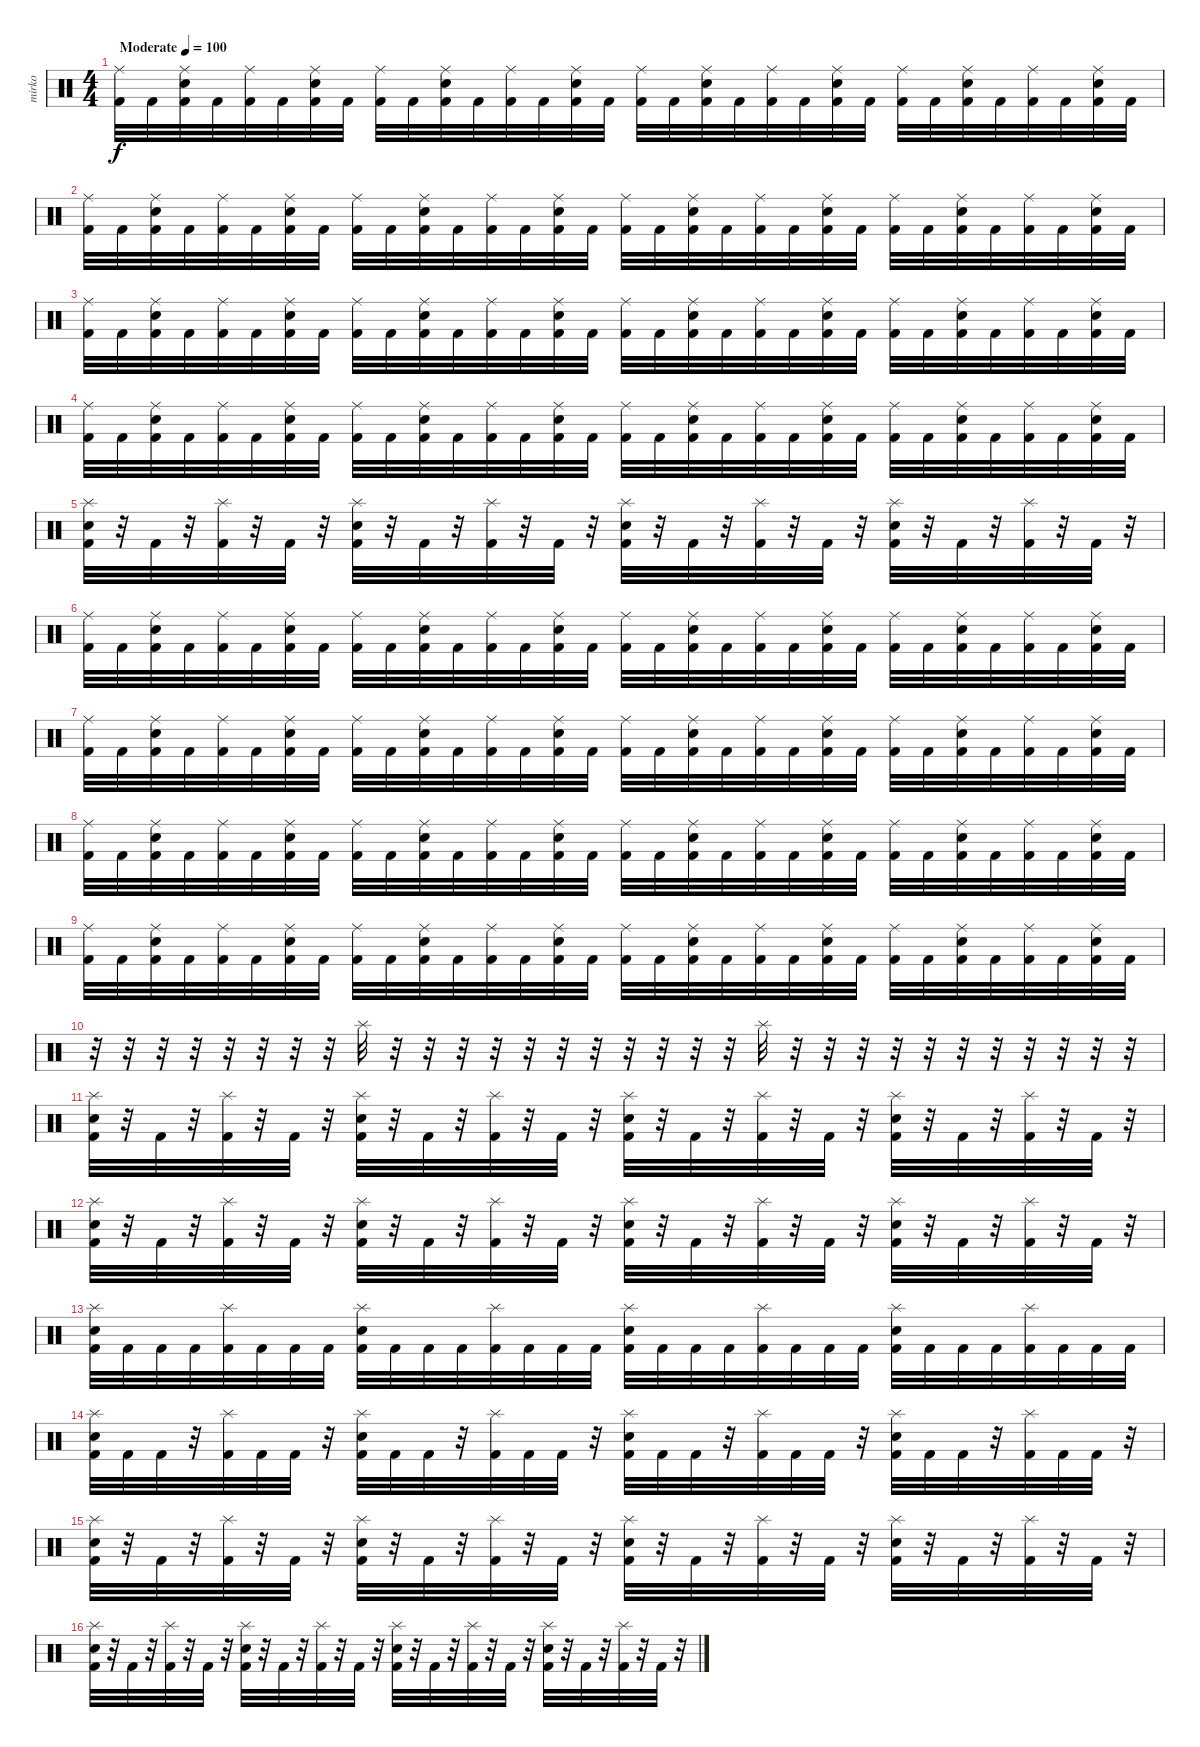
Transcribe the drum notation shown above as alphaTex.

\track ("mirko" "mirko") {instrument percussion}
\staff {score}
\articulation defaults
\ts (4 4)
\tempo (100 "Moderate")
\clef neutral
\ks c
("Ride (middle)" "Kick (hit) 2").32{dy f} "Kick (hit) 2".32 ("Ride (middle)" "Electric Snare (hit)" "Kick (hit) 2").32 "Kick (hit) 2".32 ("Ride (middle)" "Kick (hit) 2").32 "Kick (hit) 2".32 ("Ride (middle)" "Electric Snare (hit)" "Kick (hit) 2").32 "Kick (hit) 2".32 ("Ride (middle)" "Kick (hit) 2").32 "Kick (hit) 2".32 ("Ride (middle)" "Electric Snare (hit)" "Kick (hit) 2").32 "Kick (hit) 2".32 ("Ride (middle)" "Kick (hit) 2").32 "Kick (hit) 2".32 ("Ride (middle)" "Electric Snare (hit)" "Kick (hit) 2").32 "Kick (hit) 2".32 ("Ride (middle)" "Kick (hit) 2").32 "Kick (hit) 2".32 ("Ride (middle)" "Electric Snare (hit)" "Kick (hit) 2").32 "Kick (hit) 2".32 ("Ride (middle)" "Kick (hit) 2").32 "Kick (hit) 2".32 ("Ride (middle)" "Electric Snare (hit)" "Kick (hit) 2").32 "Kick (hit) 2".32 ("Ride (middle)" "Kick (hit) 2").32 "Kick (hit) 2".32 ("Ride (middle)" "Electric Snare (hit)" "Kick (hit) 2").32 "Kick (hit) 2".32 ("Ride (middle)" "Kick (hit) 2").32 "Kick (hit) 2".32 ("Ride (middle)" "Electric Snare (hit)" "Kick (hit) 2").32 "Kick (hit) 2".32 |
("Ride (middle)" "Kick (hit) 2").32 "Kick (hit) 2".32 ("Ride (middle)" "Electric Snare (hit)" "Kick (hit) 2").32 "Kick (hit) 2".32 ("Ride (middle)" "Kick (hit) 2").32 "Kick (hit) 2".32 ("Ride (middle)" "Electric Snare (hit)" "Kick (hit) 2").32 "Kick (hit) 2".32 ("Ride (middle)" "Kick (hit) 2").32 "Kick (hit) 2".32 ("Ride (middle)" "Electric Snare (hit)" "Kick (hit) 2").32 "Kick (hit) 2".32 ("Ride (middle)" "Kick (hit) 2").32 "Kick (hit) 2".32 ("Ride (middle)" "Electric Snare (hit)" "Kick (hit) 2").32 "Kick (hit) 2".32 ("Ride (middle)" "Kick (hit) 2").32 "Kick (hit) 2".32 ("Ride (middle)" "Electric Snare (hit)" "Kick (hit) 2").32 "Kick (hit) 2".32 ("Ride (middle)" "Kick (hit) 2").32 "Kick (hit) 2".32 ("Ride (middle)" "Electric Snare (hit)" "Kick (hit) 2").32 "Kick (hit) 2".32 ("Ride (middle)" "Kick (hit) 2").32 "Kick (hit) 2".32 ("Ride (middle)" "Electric Snare (hit)" "Kick (hit) 2").32 "Kick (hit) 2".32 ("Ride (middle)" "Kick (hit) 2").32 "Kick (hit) 2".32 ("Ride (middle)" "Electric Snare (hit)" "Kick (hit) 2").32 "Kick (hit) 2".32 |
("Ride (middle)" "Kick (hit) 2").32 "Kick (hit) 2".32 ("Ride (middle)" "Electric Snare (hit)" "Kick (hit) 2").32 "Kick (hit) 2".32 ("Ride (middle)" "Kick (hit) 2").32 "Kick (hit) 2".32 ("Ride (middle)" "Electric Snare (hit)" "Kick (hit) 2").32 "Kick (hit) 2".32 ("Ride (middle)" "Kick (hit) 2").32 "Kick (hit) 2".32 ("Ride (middle)" "Electric Snare (hit)" "Kick (hit) 2").32 "Kick (hit) 2".32 ("Ride (middle)" "Kick (hit) 2").32 "Kick (hit) 2".32 ("Ride (middle)" "Electric Snare (hit)" "Kick (hit) 2").32 "Kick (hit) 2".32 ("Ride (middle)" "Kick (hit) 2").32 "Kick (hit) 2".32 ("Ride (middle)" "Electric Snare (hit)" "Kick (hit) 2").32 "Kick (hit) 2".32 ("Ride (middle)" "Kick (hit) 2").32 "Kick (hit) 2".32 ("Ride (middle)" "Electric Snare (hit)" "Kick (hit) 2").32 "Kick (hit) 2".32 ("Ride (middle)" "Kick (hit) 2").32 "Kick (hit) 2".32 ("Ride (middle)" "Electric Snare (hit)" "Kick (hit) 2").32 "Kick (hit) 2".32 ("Ride (middle)" "Kick (hit) 2").32 "Kick (hit) 2".32 ("Ride (middle)" "Electric Snare (hit)" "Kick (hit) 2").32 "Kick (hit) 2".32 |
("Ride (middle)" "Kick (hit) 2").32 "Kick (hit) 2".32 ("Ride (middle)" "Electric Snare (hit)" "Kick (hit) 2").32 "Kick (hit) 2".32 ("Ride (middle)" "Kick (hit) 2").32 "Kick (hit) 2".32 ("Ride (middle)" "Electric Snare (hit)" "Kick (hit) 2").32 "Kick (hit) 2".32 ("Ride (middle)" "Kick (hit) 2").32 "Kick (hit) 2".32 ("Ride (middle)" "Electric Snare (hit)" "Kick (hit) 2").32 "Kick (hit) 2".32 ("Ride (middle)" "Kick (hit) 2").32 "Kick (hit) 2".32 ("Ride (middle)" "Electric Snare (hit)" "Kick (hit) 2").32 "Kick (hit) 2".32 ("Ride (middle)" "Kick (hit) 2").32 "Kick (hit) 2".32 ("Ride (middle)" "Electric Snare (hit)" "Kick (hit) 2").32 "Kick (hit) 2".32 ("Ride (middle)" "Kick (hit) 2").32 "Kick (hit) 2".32 ("Ride (middle)" "Electric Snare (hit)" "Kick (hit) 2").32 "Kick (hit) 2".32 ("Ride (middle)" "Kick (hit) 2").32 "Kick (hit) 2".32 ("Ride (middle)" "Electric Snare (hit)" "Kick (hit) 2").32 "Kick (hit) 2".32 ("Ride (middle)" "Kick (hit) 2").32 "Kick (hit) 2".32 ("Ride (middle)" "Electric Snare (hit)" "Kick (hit) 2").32 "Kick (hit) 2".32 |
("Splash (hit)" "Electric Snare (hit)" "Kick (hit) 2").32 r.32 "Kick (hit) 2".32 r.32 ("Splash (hit)" "Kick (hit) 2").32 r.32 "Kick (hit) 2".32 r.32 ("Splash (hit)" "Electric Snare (hit)" "Kick (hit) 2").32 r.32 "Kick (hit) 2".32 r.32 ("Splash (hit)" "Kick (hit) 2").32 r.32 "Kick (hit) 2".32 r.32 ("Splash (hit)" "Electric Snare (hit)" "Kick (hit) 2").32 r.32 "Kick (hit) 2".32 r.32 ("Splash (hit)" "Kick (hit) 2").32 r.32 "Kick (hit) 2".32 r.32 ("Splash (hit)" "Electric Snare (hit)" "Kick (hit) 2").32 r.32 "Kick (hit) 2".32 r.32 ("Splash (hit)" "Kick (hit) 2").32 r.32 "Kick (hit) 2".32 r.32 |
("Ride (middle)" "Kick (hit) 2").32 "Kick (hit) 2".32 ("Ride (middle)" "Electric Snare (hit)" "Kick (hit) 2").32 "Kick (hit) 2".32 ("Ride (middle)" "Kick (hit) 2").32 "Kick (hit) 2".32 ("Ride (middle)" "Electric Snare (hit)" "Kick (hit) 2").32 "Kick (hit) 2".32 ("Ride (middle)" "Kick (hit) 2").32 "Kick (hit) 2".32 ("Ride (middle)" "Electric Snare (hit)" "Kick (hit) 2").32 "Kick (hit) 2".32 ("Ride (middle)" "Kick (hit) 2").32 "Kick (hit) 2".32 ("Ride (middle)" "Electric Snare (hit)" "Kick (hit) 2").32 "Kick (hit) 2".32 ("Ride (middle)" "Kick (hit) 2").32 "Kick (hit) 2".32 ("Ride (middle)" "Electric Snare (hit)" "Kick (hit) 2").32 "Kick (hit) 2".32 ("Ride (middle)" "Kick (hit) 2").32 "Kick (hit) 2".32 ("Ride (middle)" "Electric Snare (hit)" "Kick (hit) 2").32 "Kick (hit) 2".32 ("Ride (middle)" "Kick (hit) 2").32 "Kick (hit) 2".32 ("Ride (middle)" "Electric Snare (hit)" "Kick (hit) 2").32 "Kick (hit) 2".32 ("Ride (middle)" "Kick (hit) 2").32 "Kick (hit) 2".32 ("Ride (middle)" "Electric Snare (hit)" "Kick (hit) 2").32 "Kick (hit) 2".32 |
("Ride (middle)" "Kick (hit) 2").32 "Kick (hit) 2".32 ("Ride (middle)" "Electric Snare (hit)" "Kick (hit) 2").32 "Kick (hit) 2".32 ("Ride (middle)" "Kick (hit) 2").32 "Kick (hit) 2".32 ("Ride (middle)" "Electric Snare (hit)" "Kick (hit) 2").32 "Kick (hit) 2".32 ("Ride (middle)" "Kick (hit) 2").32 "Kick (hit) 2".32 ("Ride (middle)" "Electric Snare (hit)" "Kick (hit) 2").32 "Kick (hit) 2".32 ("Ride (middle)" "Kick (hit) 2").32 "Kick (hit) 2".32 ("Ride (middle)" "Electric Snare (hit)" "Kick (hit) 2").32 "Kick (hit) 2".32 ("Ride (middle)" "Kick (hit) 2").32 "Kick (hit) 2".32 ("Ride (middle)" "Electric Snare (hit)" "Kick (hit) 2").32 "Kick (hit) 2".32 ("Ride (middle)" "Kick (hit) 2").32 "Kick (hit) 2".32 ("Ride (middle)" "Electric Snare (hit)" "Kick (hit) 2").32 "Kick (hit) 2".32 ("Ride (middle)" "Kick (hit) 2").32 "Kick (hit) 2".32 ("Ride (middle)" "Electric Snare (hit)" "Kick (hit) 2").32 "Kick (hit) 2".32 ("Ride (middle)" "Kick (hit) 2").32 "Kick (hit) 2".32 ("Ride (middle)" "Electric Snare (hit)" "Kick (hit) 2").32 "Kick (hit) 2".32 |
("Ride (middle)" "Kick (hit) 2").32 "Kick (hit) 2".32 ("Ride (middle)" "Electric Snare (hit)" "Kick (hit) 2").32 "Kick (hit) 2".32 ("Ride (middle)" "Kick (hit) 2").32 "Kick (hit) 2".32 ("Ride (middle)" "Electric Snare (hit)" "Kick (hit) 2").32 "Kick (hit) 2".32 ("Ride (middle)" "Kick (hit) 2").32 "Kick (hit) 2".32 ("Ride (middle)" "Electric Snare (hit)" "Kick (hit) 2").32 "Kick (hit) 2".32 ("Ride (middle)" "Kick (hit) 2").32 "Kick (hit) 2".32 ("Ride (middle)" "Electric Snare (hit)" "Kick (hit) 2").32 "Kick (hit) 2".32 ("Ride (middle)" "Kick (hit) 2").32 "Kick (hit) 2".32 ("Ride (middle)" "Electric Snare (hit)" "Kick (hit) 2").32 "Kick (hit) 2".32 ("Ride (middle)" "Kick (hit) 2").32 "Kick (hit) 2".32 ("Ride (middle)" "Electric Snare (hit)" "Kick (hit) 2").32 "Kick (hit) 2".32 ("Ride (middle)" "Kick (hit) 2").32 "Kick (hit) 2".32 ("Ride (middle)" "Electric Snare (hit)" "Kick (hit) 2").32 "Kick (hit) 2".32 ("Ride (middle)" "Kick (hit) 2").32 "Kick (hit) 2".32 ("Ride (middle)" "Electric Snare (hit)" "Kick (hit) 2").32 "Kick (hit) 2".32 |
("Ride (middle)" "Kick (hit) 2").32 "Kick (hit) 2".32 ("Ride (middle)" "Electric Snare (hit)" "Kick (hit) 2").32 "Kick (hit) 2".32 ("Ride (middle)" "Kick (hit) 2").32 "Kick (hit) 2".32 ("Ride (middle)" "Electric Snare (hit)" "Kick (hit) 2").32 "Kick (hit) 2".32 ("Ride (middle)" "Kick (hit) 2").32 "Kick (hit) 2".32 ("Ride (middle)" "Electric Snare (hit)" "Kick (hit) 2").32 "Kick (hit) 2".32 ("Ride (middle)" "Kick (hit) 2").32 "Kick (hit) 2".32 ("Ride (middle)" "Electric Snare (hit)" "Kick (hit) 2").32 "Kick (hit) 2".32 ("Ride (middle)" "Kick (hit) 2").32 "Kick (hit) 2".32 ("Ride (middle)" "Electric Snare (hit)" "Kick (hit) 2").32 "Kick (hit) 2".32 ("Ride (middle)" "Kick (hit) 2").32 "Kick (hit) 2".32 ("Ride (middle)" "Electric Snare (hit)" "Kick (hit) 2").32 "Kick (hit) 2".32 ("Ride (middle)" "Kick (hit) 2").32 "Kick (hit) 2".32 ("Ride (middle)" "Electric Snare (hit)" "Kick (hit) 2").32 "Kick (hit) 2".32 ("Ride (middle)" "Kick (hit) 2").32 "Kick (hit) 2".32 ("Ride (middle)" "Electric Snare (hit)" "Kick (hit) 2").32 "Kick (hit) 2".32 |
r.32 r.32 r.32 r.32 r.32 r.32 r.32 r.32 "Splash (hit)".32 r.32 r.32 r.32 r.32 r.32 r.32 r.32 r.32 r.32 r.32 r.32 "Splash (hit)".32 r.32 r.32 r.32 r.32 r.32 r.32 r.32 r.32 r.32 r.32 r.32 |
("Splash (hit)" "Electric Snare (hit)" "Kick (hit) 2").32 r.32 "Kick (hit) 2".32 r.32 ("Splash (hit)" "Kick (hit) 2").32 r.32 "Kick (hit) 2".32 r.32 ("Splash (hit)" "Electric Snare (hit)" "Kick (hit) 2").32 r.32 "Kick (hit) 2".32 r.32 ("Splash (hit)" "Kick (hit) 2").32 r.32 "Kick (hit) 2".32 r.32 ("Splash (hit)" "Electric Snare (hit)" "Kick (hit) 2").32 r.32 "Kick (hit) 2".32 r.32 ("Splash (hit)" "Kick (hit) 2").32 r.32 "Kick (hit) 2".32 r.32 ("Splash (hit)" "Electric Snare (hit)" "Kick (hit) 2").32 r.32 "Kick (hit) 2".32 r.32 ("Splash (hit)" "Kick (hit) 2").32 r.32 "Kick (hit) 2".32 r.32 |
("Splash (hit)" "Electric Snare (hit)" "Kick (hit) 2").32 r.32 "Kick (hit) 2".32 r.32 ("Splash (hit)" "Kick (hit) 2").32 r.32 "Kick (hit) 2".32 r.32 ("Splash (hit)" "Electric Snare (hit)" "Kick (hit) 2").32 r.32 "Kick (hit) 2".32 r.32 ("Splash (hit)" "Kick (hit) 2").32 r.32 "Kick (hit) 2".32 r.32 ("Splash (hit)" "Electric Snare (hit)" "Kick (hit) 2").32 r.32 "Kick (hit) 2".32 r.32 ("Splash (hit)" "Kick (hit) 2").32 r.32 "Kick (hit) 2".32 r.32 ("Splash (hit)" "Electric Snare (hit)" "Kick (hit) 2").32 r.32 "Kick (hit) 2".32 r.32 ("Splash (hit)" "Kick (hit) 2").32 r.32 "Kick (hit) 2".32 r.32 |
("Splash (hit)" "Electric Snare (hit)" "Kick (hit) 2").32 "Kick (hit) 2".32 "Kick (hit) 2".32 "Kick (hit) 2".32 ("Splash (hit)" "Kick (hit) 2").32 "Kick (hit) 2".32 "Kick (hit) 2".32 "Kick (hit) 2".32 ("Splash (hit)" "Electric Snare (hit)" "Kick (hit) 2").32 "Kick (hit) 2".32 "Kick (hit) 2".32 "Kick (hit) 2".32 ("Splash (hit)" "Kick (hit) 2").32 "Kick (hit) 2".32 "Kick (hit) 2".32 "Kick (hit) 2".32 ("Splash (hit)" "Electric Snare (hit)" "Kick (hit) 2").32 "Kick (hit) 2".32 "Kick (hit) 2".32 "Kick (hit) 2".32 ("Splash (hit)" "Kick (hit) 2").32 "Kick (hit) 2".32 "Kick (hit) 2".32 "Kick (hit) 2".32 ("Splash (hit)" "Electric Snare (hit)" "Kick (hit) 2").32 "Kick (hit) 2".32 "Kick (hit) 2".32 "Kick (hit) 2".32 ("Splash (hit)" "Kick (hit) 2").32 "Kick (hit) 2".32 "Kick (hit) 2".32 "Kick (hit) 2".32 |
("Splash (hit)" "Electric Snare (hit)" "Kick (hit) 2").32 "Kick (hit) 2".32 "Kick (hit) 2".32 r.32 ("Splash (hit)" "Kick (hit) 2").32 "Kick (hit) 2".32 "Kick (hit) 2".32 r.32 ("Splash (hit)" "Electric Snare (hit)" "Kick (hit) 2").32 "Kick (hit) 2".32 "Kick (hit) 2".32 r.32 ("Splash (hit)" "Kick (hit) 2").32 "Kick (hit) 2".32 "Kick (hit) 2".32 r.32 ("Splash (hit)" "Electric Snare (hit)" "Kick (hit) 2").32 "Kick (hit) 2".32 "Kick (hit) 2".32 r.32 ("Splash (hit)" "Kick (hit) 2").32 "Kick (hit) 2".32 "Kick (hit) 2".32 r.32 ("Splash (hit)" "Electric Snare (hit)" "Kick (hit) 2").32 "Kick (hit) 2".32 "Kick (hit) 2".32 r.32 ("Splash (hit)" "Kick (hit) 2").32 "Kick (hit) 2".32 "Kick (hit) 2".32 r.32 |
("Splash (hit)" "Electric Snare (hit)" "Kick (hit) 2").32 r.32 "Kick (hit) 2".32 r.32 ("Splash (hit)" "Kick (hit) 2").32 r.32 "Kick (hit) 2".32 r.32 ("Splash (hit)" "Electric Snare (hit)" "Kick (hit) 2").32 r.32 "Kick (hit) 2".32 r.32 ("Splash (hit)" "Kick (hit) 2").32 r.32 "Kick (hit) 2".32 r.32 ("Splash (hit)" "Electric Snare (hit)" "Kick (hit) 2").32 r.32 "Kick (hit) 2".32 r.32 ("Splash (hit)" "Kick (hit) 2").32 r.32 "Kick (hit) 2".32 r.32 ("Splash (hit)" "Electric Snare (hit)" "Kick (hit) 2").32 r.32 "Kick (hit) 2".32 r.32 ("Splash (hit)" "Kick (hit) 2").32 r.32 "Kick (hit) 2".32 r.32 |
("Splash (hit)" "Electric Snare (hit)" "Kick (hit) 2").32 r.32 "Kick (hit) 2".32 r.32 ("Splash (hit)" "Kick (hit) 2").32 r.32 "Kick (hit) 2".32 r.32 ("Splash (hit)" "Electric Snare (hit)" "Kick (hit) 2").32 r.32 "Kick (hit) 2".32 r.32 ("Splash (hit)" "Kick (hit) 2").32 r.32 "Kick (hit) 2".32 r.32 ("Splash (hit)" "Electric Snare (hit)" "Kick (hit) 2").32 r.32 "Kick (hit) 2".32 r.32 ("Splash (hit)" "Kick (hit) 2").32 r.32 "Kick (hit) 2".32 r.32 ("Splash (hit)" "Electric Snare (hit)" "Kick (hit) 2").32 r.32 "Kick (hit) 2".32 r.32 ("Splash (hit)" "Kick (hit) 2").32 r.32 "Kick (hit) 2".32 r.32
